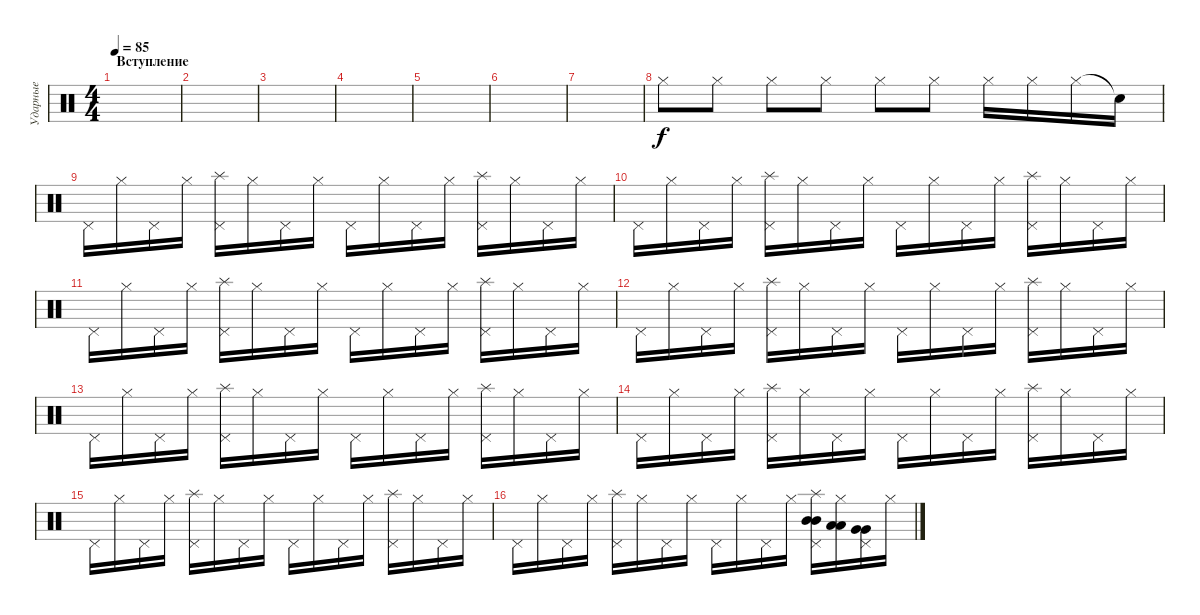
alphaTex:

\track ("Ударные" "Ударные") {instrument percussion}
\staff {score}
\articulation defaults
\ts (4 4)
\section ("" "Вступление")
\tempo 85
\clef neutral
\ks c
|
|
|
|
|
|
|
"Hi-Hat (closed)".8 "Hi-Hat (closed)".8 "Hi-Hat (closed)".8 "Hi-Hat (closed)".8 "Hi-Hat (closed)".8 "Hi-Hat (closed)".8 "Hi-Hat (closed)".16 "Hi-Hat (closed)".16 "Hi-Hat (closed)".16 "Snare (hit)"{t}.16 |
"Pedal Hi-Hat (hit)".16 "Hi-Hat (closed)".16 "Pedal Hi-Hat (hit)".16 "Hi-Hat (closed)".16 ("Pedal Hi-Hat (hit)" "Splash (hit)").16 "Hi-Hat (closed)".16 "Pedal Hi-Hat (hit)".16 "Hi-Hat (closed)".16 "Pedal Hi-Hat (hit)".16 "Hi-Hat (closed)".16 "Pedal Hi-Hat (hit)".16 "Hi-Hat (closed)".16 ("Pedal Hi-Hat (hit)" "Splash (hit)").16 "Hi-Hat (closed)".16 "Pedal Hi-Hat (hit)".16 "Hi-Hat (closed)".16 |
"Pedal Hi-Hat (hit)".16 "Hi-Hat (closed)".16 "Pedal Hi-Hat (hit)".16 "Hi-Hat (closed)".16 ("Pedal Hi-Hat (hit)" "Splash (hit)").16 "Hi-Hat (closed)".16 "Pedal Hi-Hat (hit)".16 "Hi-Hat (closed)".16 "Pedal Hi-Hat (hit)".16 "Hi-Hat (closed)".16 "Pedal Hi-Hat (hit)".16 "Hi-Hat (closed)".16 ("Pedal Hi-Hat (hit)" "Splash (hit)").16 "Hi-Hat (closed)".16 "Pedal Hi-Hat (hit)".16 "Hi-Hat (closed)".16 |
"Pedal Hi-Hat (hit)".16 "Hi-Hat (closed)".16 "Pedal Hi-Hat (hit)".16 "Hi-Hat (closed)".16 ("Pedal Hi-Hat (hit)" "Splash (hit)").16 "Hi-Hat (closed)".16 "Pedal Hi-Hat (hit)".16 "Hi-Hat (closed)".16 "Pedal Hi-Hat (hit)".16 "Hi-Hat (closed)".16 "Pedal Hi-Hat (hit)".16 "Hi-Hat (closed)".16 ("Pedal Hi-Hat (hit)" "Splash (hit)").16 "Hi-Hat (closed)".16 "Pedal Hi-Hat (hit)".16 "Hi-Hat (closed)".16 |
"Pedal Hi-Hat (hit)".16 "Hi-Hat (closed)".16 "Pedal Hi-Hat (hit)".16 "Hi-Hat (closed)".16 ("Pedal Hi-Hat (hit)" "Splash (hit)").16 "Hi-Hat (closed)".16 "Pedal Hi-Hat (hit)".16 "Hi-Hat (closed)".16 "Pedal Hi-Hat (hit)".16 "Hi-Hat (closed)".16 "Pedal Hi-Hat (hit)".16 "Hi-Hat (closed)".16 ("Pedal Hi-Hat (hit)" "Splash (hit)").16 "Hi-Hat (closed)".16 "Pedal Hi-Hat (hit)".16 "Hi-Hat (closed)".16 |
"Pedal Hi-Hat (hit)".16 "Hi-Hat (closed)".16 "Pedal Hi-Hat (hit)".16 "Hi-Hat (closed)".16 ("Pedal Hi-Hat (hit)" "Splash (hit)").16 "Hi-Hat (closed)".16 "Pedal Hi-Hat (hit)".16 "Hi-Hat (closed)".16 "Pedal Hi-Hat (hit)".16 "Hi-Hat (closed)".16 "Pedal Hi-Hat (hit)".16 "Hi-Hat (closed)".16 ("Pedal Hi-Hat (hit)" "Splash (hit)").16 "Hi-Hat (closed)".16 "Pedal Hi-Hat (hit)".16 "Hi-Hat (closed)".16 |
"Pedal Hi-Hat (hit)".16 "Hi-Hat (closed)".16 "Pedal Hi-Hat (hit)".16 "Hi-Hat (closed)".16 ("Pedal Hi-Hat (hit)" "Splash (hit)").16 "Hi-Hat (closed)".16 "Pedal Hi-Hat (hit)".16 "Hi-Hat (closed)".16 "Pedal Hi-Hat (hit)".16 "Hi-Hat (closed)".16 "Pedal Hi-Hat (hit)".16 "Hi-Hat (closed)".16 ("Pedal Hi-Hat (hit)" "Splash (hit)").16 "Hi-Hat (closed)".16 "Pedal Hi-Hat (hit)".16 "Hi-Hat (closed)".16 |
"Pedal Hi-Hat (hit)".16 "Hi-Hat (closed)".16 "Pedal Hi-Hat (hit)".16 "Hi-Hat (closed)".16 ("Pedal Hi-Hat (hit)" "Splash (hit)").16 "Hi-Hat (closed)".16 "Pedal Hi-Hat (hit)".16 "Hi-Hat (closed)".16 "Pedal Hi-Hat (hit)".16 "Hi-Hat (closed)".16 "Pedal Hi-Hat (hit)".16 "Hi-Hat (closed)".16 ("Pedal Hi-Hat (hit)" "Splash (hit)").16 "Hi-Hat (closed)".16 "Pedal Hi-Hat (hit)".16 "Hi-Hat (closed)".16 |
"Pedal Hi-Hat (hit)".16 "Hi-Hat (closed)".16 "Pedal Hi-Hat (hit)".16 "Hi-Hat (closed)".16 ("Pedal Hi-Hat (hit)" "Splash (hit)").16 "Hi-Hat (closed)".16 "Pedal Hi-Hat (hit)".16 "Hi-Hat (closed)".16 "Pedal Hi-Hat (hit)".16 "Hi-Hat (closed)".16 "Pedal Hi-Hat (hit)".16 "Hi-Hat (closed)".16 ("Pedal Hi-Hat (hit)" "Splash (hit)" "Mid Tom (hit)" "Mid Tom (hit)").16 ("Hi-Hat (closed)" "Low Tom (hit)" "Low Tom (hit)").16 ("Pedal Hi-Hat (hit)" "Very Low Tom (hit)" "Very Low Tom (hit)").16 "Hi-Hat (closed)".16
